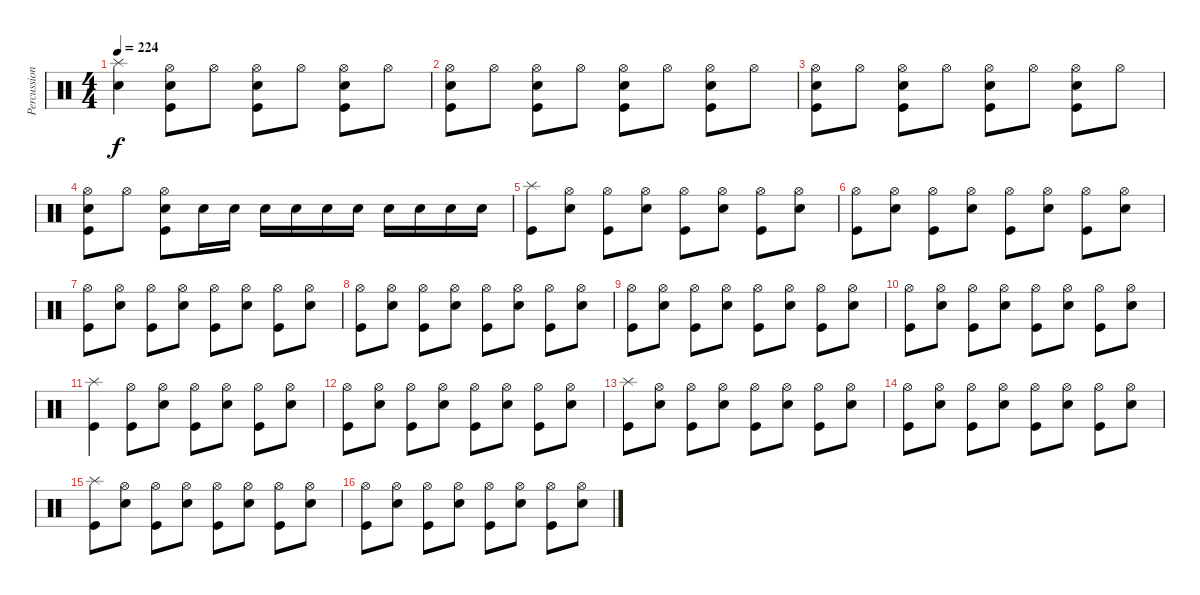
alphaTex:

\track ("Percussions" "Percussion") {instrument percussion}
\staff {score}
\articulation defaults
\ts (4 4)
\tempo 224
\clef neutral
\ks c
("Electric Snare (hit)" "Splash (hit)").4{dy f} ("Kick (hit)" "Electric Snare (hit)" "Hi-Hat (open)").8 "Hi-Hat (open)".8 ("Kick (hit)" "Electric Snare (hit)" "Hi-Hat (open)").8 "Hi-Hat (open)".8 ("Kick (hit)" "Electric Snare (hit)" "Hi-Hat (open)").8 "Hi-Hat (open)".8 |
("Kick (hit)" "Electric Snare (hit)" "Hi-Hat (open)").8 "Hi-Hat (open)".8 ("Kick (hit)" "Electric Snare (hit)" "Hi-Hat (open)").8 "Hi-Hat (open)".8 ("Kick (hit)" "Electric Snare (hit)" "Hi-Hat (open)").8 "Hi-Hat (open)".8 ("Kick (hit)" "Electric Snare (hit)" "Hi-Hat (open)").8 "Hi-Hat (open)".8 |
("Kick (hit)" "Electric Snare (hit)" "Hi-Hat (open)").8 "Hi-Hat (open)".8 ("Kick (hit)" "Electric Snare (hit)" "Hi-Hat (open)").8 "Hi-Hat (open)".8 ("Kick (hit)" "Electric Snare (hit)" "Hi-Hat (open)").8 "Hi-Hat (open)".8 ("Kick (hit)" "Electric Snare (hit)" "Hi-Hat (open)").8 "Hi-Hat (open)".8 |
("Kick (hit)" "Electric Snare (hit)" "Hi-Hat (open)").8 "Hi-Hat (open)".8 ("Kick (hit)" "Electric Snare (hit)" "Hi-Hat (open)").8 "Electric Snare (hit)".16 "Electric Snare (hit)".16 "Electric Snare (hit)".16 "Electric Snare (hit)".16 "Electric Snare (hit)".16 "Electric Snare (hit)".16 "Electric Snare (hit)".16 "Electric Snare (hit)".16 "Electric Snare (hit)".16 "Electric Snare (hit)".16 |
("Kick (hit)" "Splash (hit)").8 ("Electric Snare (hit)" "Hi-Hat (open)").8 ("Kick (hit)" "Hi-Hat (open)").8 ("Electric Snare (hit)" "Hi-Hat (open)").8 ("Kick (hit)" "Hi-Hat (open)").8 ("Electric Snare (hit)" "Hi-Hat (open)").8 ("Kick (hit)" "Hi-Hat (open)").8 ("Electric Snare (hit)" "Hi-Hat (open)").8 |
("Kick (hit)" "Hi-Hat (open)").8 ("Electric Snare (hit)" "Hi-Hat (open)").8 ("Kick (hit)" "Hi-Hat (open)").8 ("Electric Snare (hit)" "Hi-Hat (open)").8 ("Kick (hit)" "Hi-Hat (open)").8 ("Electric Snare (hit)" "Hi-Hat (open)").8 ("Kick (hit)" "Hi-Hat (open)").8 ("Electric Snare (hit)" "Hi-Hat (open)").8 |
("Kick (hit)" "Hi-Hat (open)").8 ("Electric Snare (hit)" "Hi-Hat (open)").8 ("Kick (hit)" "Hi-Hat (open)").8 ("Electric Snare (hit)" "Hi-Hat (open)").8 ("Kick (hit)" "Hi-Hat (open)").8 ("Electric Snare (hit)" "Hi-Hat (open)").8 ("Kick (hit)" "Hi-Hat (open)").8 ("Electric Snare (hit)" "Hi-Hat (open)").8 |
("Kick (hit)" "Hi-Hat (open)").8 ("Electric Snare (hit)" "Hi-Hat (open)").8 ("Kick (hit)" "Hi-Hat (open)").8 ("Electric Snare (hit)" "Hi-Hat (open)").8 ("Kick (hit)" "Hi-Hat (open)").8 ("Electric Snare (hit)" "Hi-Hat (open)").8 ("Kick (hit)" "Hi-Hat (open)").8 ("Electric Snare (hit)" "Hi-Hat (open)").8 |
("Kick (hit)" "Hi-Hat (open)").8 ("Electric Snare (hit)" "Hi-Hat (open)").8 ("Kick (hit)" "Hi-Hat (open)").8 ("Electric Snare (hit)" "Hi-Hat (open)").8 ("Kick (hit)" "Hi-Hat (open)").8 ("Electric Snare (hit)" "Hi-Hat (open)").8 ("Kick (hit)" "Hi-Hat (open)").8 ("Electric Snare (hit)" "Hi-Hat (open)").8 |
("Kick (hit)" "Hi-Hat (open)").8 ("Electric Snare (hit)" "Hi-Hat (open)").8 ("Kick (hit)" "Hi-Hat (open)").8 ("Electric Snare (hit)" "Hi-Hat (open)").8 ("Kick (hit)" "Hi-Hat (open)").8 ("Electric Snare (hit)" "Hi-Hat (open)").8 ("Kick (hit)" "Hi-Hat (open)").8 ("Electric Snare (hit)" "Hi-Hat (open)").8 |
("Kick (hit)" "Splash (hit)").4 ("Kick (hit)" "Hi-Hat (open)").8 ("Electric Snare (hit)" "Hi-Hat (open)").8 ("Kick (hit)" "Hi-Hat (open)").8 ("Electric Snare (hit)" "Hi-Hat (open)").8 ("Kick (hit)" "Hi-Hat (open)").8 ("Electric Snare (hit)" "Hi-Hat (open)").8 |
("Kick (hit)" "Hi-Hat (open)").8 ("Electric Snare (hit)" "Hi-Hat (open)").8 ("Kick (hit)" "Hi-Hat (open)").8 ("Electric Snare (hit)" "Hi-Hat (open)").8 ("Kick (hit)" "Hi-Hat (open)").8 ("Electric Snare (hit)" "Hi-Hat (open)").8 ("Kick (hit)" "Hi-Hat (open)").8 ("Electric Snare (hit)" "Hi-Hat (open)").8 |
("Kick (hit)" "Splash (hit)").8 ("Electric Snare (hit)" "Hi-Hat (open)").8 ("Kick (hit)" "Hi-Hat (open)").8 ("Electric Snare (hit)" "Hi-Hat (open)").8 ("Kick (hit)" "Hi-Hat (open)").8 ("Electric Snare (hit)" "Hi-Hat (open)").8 ("Kick (hit)" "Hi-Hat (open)").8 ("Electric Snare (hit)" "Hi-Hat (open)").8 |
("Kick (hit)" "Hi-Hat (open)").8 ("Electric Snare (hit)" "Hi-Hat (open)").8 ("Kick (hit)" "Hi-Hat (open)").8 ("Electric Snare (hit)" "Hi-Hat (open)").8 ("Kick (hit)" "Hi-Hat (open)").8 ("Electric Snare (hit)" "Hi-Hat (open)").8 ("Kick (hit)" "Hi-Hat (open)").8 ("Electric Snare (hit)" "Hi-Hat (open)").8 |
("Kick (hit)" "Splash (hit)").8 ("Electric Snare (hit)" "Hi-Hat (open)").8 ("Kick (hit)" "Hi-Hat (open)").8 ("Electric Snare (hit)" "Hi-Hat (open)").8 ("Kick (hit)" "Hi-Hat (open)").8 ("Electric Snare (hit)" "Hi-Hat (open)").8 ("Kick (hit)" "Hi-Hat (open)").8 ("Electric Snare (hit)" "Hi-Hat (open)").8 |
("Kick (hit)" "Hi-Hat (open)").8 ("Electric Snare (hit)" "Hi-Hat (open)").8 ("Kick (hit)" "Hi-Hat (open)").8 ("Electric Snare (hit)" "Hi-Hat (open)").8 ("Kick (hit)" "Hi-Hat (open)").8 ("Electric Snare (hit)" "Hi-Hat (open)").8 ("Kick (hit)" "Hi-Hat (open)").8 ("Electric Snare (hit)" "Hi-Hat (open)").8
